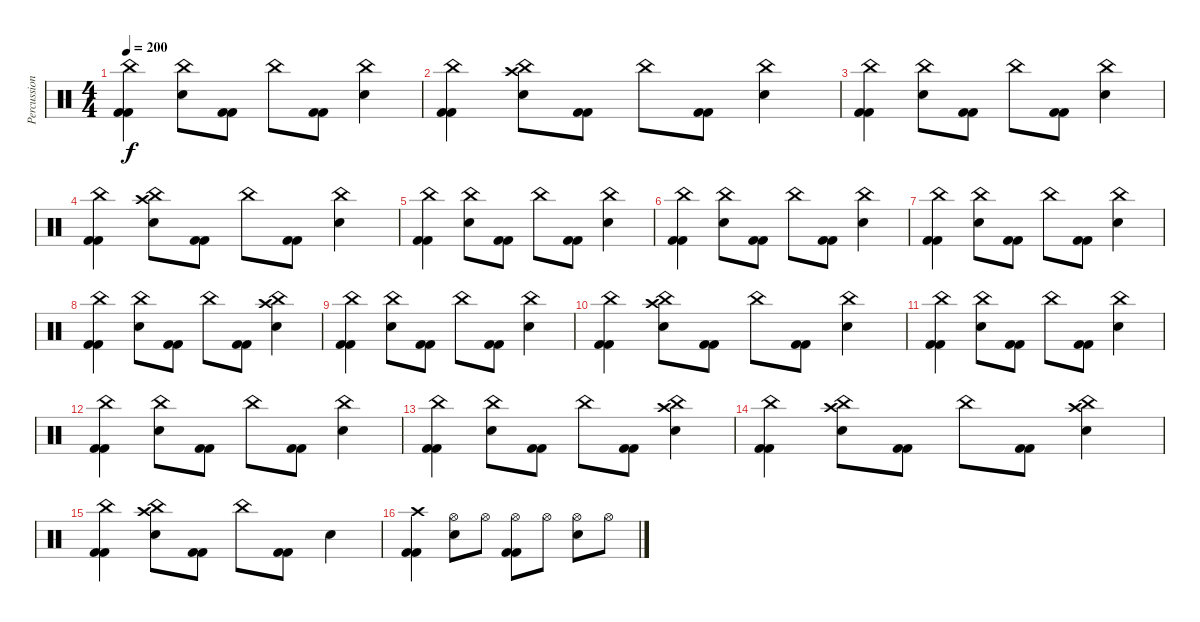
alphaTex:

\track ("Percussion" "Percussion") {instrument percussion}
\staff {score}
\articulation defaults
\ts (4 4)
\tempo 200
\clef neutral
\ks c
("China (hit)" "Kick (hit) 2" "Kick (hit) 2").4{dy f} ("China (hit)" "Snare (hit) 2").8 ("Kick (hit) 2" "Kick (hit) 2").8 "China (hit)".8 ("Kick (hit) 2" "Kick (hit) 2").8 ("China (hit)" "Snare (hit) 2").4 |
("China (hit)" "Kick (hit) 2" "Kick (hit) 2").4 ("China (hit)" "Snare (hit) 2" "Crash high (hit)").8 ("Kick (hit) 2" "Kick (hit) 2").8 "China (hit)".8 ("Kick (hit) 2" "Kick (hit) 2").8 ("China (hit)" "Snare (hit) 2").4 |
("China (hit)" "Kick (hit) 2" "Kick (hit) 2").4 ("China (hit)" "Snare (hit) 2").8 ("Kick (hit) 2" "Kick (hit) 2").8 "China (hit)".8 ("Kick (hit) 2" "Kick (hit) 2").8 ("China (hit)" "Snare (hit) 2").4 |
("China (hit)" "Kick (hit) 2" "Kick (hit) 2").4 ("China (hit)" "Snare (hit) 2" "Crash high (hit)").8 ("Kick (hit) 2" "Kick (hit) 2").8 "China (hit)".8 ("Kick (hit) 2" "Kick (hit) 2").8 ("China (hit)" "Snare (hit) 2").4 |
("China (hit)" "Kick (hit) 2" "Kick (hit) 2").4 ("China (hit)" "Snare (hit) 2").8 ("Kick (hit) 2" "Kick (hit) 2").8 "China (hit)".8 ("Kick (hit) 2" "Kick (hit) 2").8 ("China (hit)" "Snare (hit) 2").4 |
("China (hit)" "Kick (hit) 2" "Kick (hit) 2").4 ("China (hit)" "Snare (hit) 2").8 ("Kick (hit) 2" "Kick (hit) 2").8 "China (hit)".8 ("Kick (hit) 2" "Kick (hit) 2").8 ("China (hit)" "Snare (hit) 2").4 |
("China (hit)" "Kick (hit) 2" "Kick (hit) 2").4 ("China (hit)" "Snare (hit) 2").8 ("Kick (hit) 2" "Kick (hit) 2").8 "China (hit)".8 ("Kick (hit) 2" "Kick (hit) 2").8 ("China (hit)" "Snare (hit) 2").4 |
("China (hit)" "Kick (hit) 2" "Kick (hit) 2").4 ("China (hit)" "Snare (hit) 2").8 ("Kick (hit) 2" "Kick (hit) 2").8 "China (hit)".8 ("Kick (hit) 2" "Kick (hit) 2").8 ("China (hit)" "Snare (hit) 2" "Crash high (hit)").4 |
("China (hit)" "Kick (hit) 2" "Kick (hit) 2").4 ("China (hit)" "Snare (hit) 2").8 ("Kick (hit) 2" "Kick (hit) 2").8 "China (hit)".8 ("Kick (hit) 2" "Kick (hit) 2").8 ("China (hit)" "Snare (hit) 2").4 |
("China (hit)" "Kick (hit) 2" "Kick (hit) 2").4 ("China (hit)" "Snare (hit) 2" "Crash high (hit)").8 ("Kick (hit) 2" "Kick (hit) 2").8 "China (hit)".8 ("Kick (hit) 2" "Kick (hit) 2").8 ("China (hit)" "Snare (hit) 2").4 |
("China (hit)" "Kick (hit) 2" "Kick (hit) 2").4 ("China (hit)" "Snare (hit) 2").8 ("Kick (hit) 2" "Kick (hit) 2").8 "China (hit)".8 ("Kick (hit) 2" "Kick (hit) 2").8 ("China (hit)" "Snare (hit) 2").4 |
("China (hit)" "Kick (hit) 2" "Kick (hit) 2").4 ("China (hit)" "Snare (hit) 2").8 ("Kick (hit) 2" "Kick (hit) 2").8 "China (hit)".8 ("Kick (hit) 2" "Kick (hit) 2").8 ("China (hit)" "Snare (hit) 2").4 |
("China (hit)" "Kick (hit) 2" "Kick (hit) 2").4 ("China (hit)" "Snare (hit) 2").8 ("Kick (hit) 2" "Kick (hit) 2").8 "China (hit)".8 ("Kick (hit) 2" "Kick (hit) 2").8 ("China (hit)" "Snare (hit) 2" "Crash high (hit)").4 |
("China (hit)" "Kick (hit) 2" "Kick (hit) 2").4 ("China (hit)" "Snare (hit) 2" "Crash high (hit)").8 ("Kick (hit) 2" "Kick (hit) 2").8 "China (hit)".8 ("Kick (hit) 2" "Kick (hit) 2").8 ("China (hit)" "Snare (hit) 2" "Crash high (hit)").4 |
("China (hit)" "Kick (hit) 2" "Kick (hit) 2").4 ("China (hit)" "Snare (hit) 2" "Crash high (hit)").8 ("Kick (hit) 2" "Kick (hit) 2").8 "China (hit)".8 ("Kick (hit) 2" "Kick (hit) 2").8 "Snare (hit) 2".4 |
("Crash high (hit)" "Kick (hit) 2" "Kick (hit) 2").4 ("Hi-Hat (open)" "Snare (hit) 2").8 "Hi-Hat (open)".8 ("Hi-Hat (open)" "Kick (hit) 2" "Kick (hit) 2").8 "Hi-Hat (open)".8 ("Hi-Hat (open)" "Snare (hit) 2").8 "Hi-Hat (open)".8
